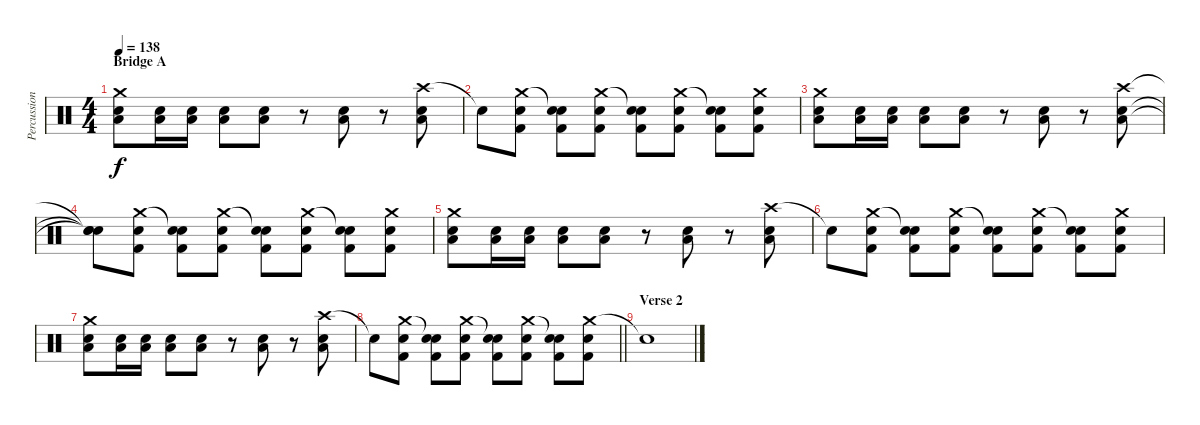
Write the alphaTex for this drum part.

\track ("Percussion" "Percussion") {instrument percussion}
\staff {score}
\articulation defaults
\ts (4 4)
\section ("" "Bridge A")
\tempo 138
\clef neutral
\ks c
("Crash medium (hit)" "Electric Snare (hit)" "Low Tom (hit)").8{dy f} ("Low Tom (hit)" "Electric Snare (hit)").16 ("Low Tom (hit)" "Electric Snare (hit)").16 ("Low Tom (hit)" "Electric Snare (hit)").8 ("Low Tom (hit)" "Electric Snare (hit)").8 r.8 ("Low Tom (hit)" "Electric Snare (hit)").8 r.8 ("Crash high (hit)" "Low Tom (hit)" "Electric Snare (hit)").8 |
"Snare (hit)"{t}.8 ("Crash medium (hit)" "Electric Snare (hit)" "Kick (hit) 2").8 ("Snare (hit)"{t} "Electric Snare (hit)" "Kick (hit) 2").8 ("Crash medium (hit)" "Electric Snare (hit)" "Kick (hit) 2").8 ("Snare (hit)"{t} "Electric Snare (hit)" "Kick (hit) 2").8 ("Crash medium (hit)" "Electric Snare (hit)" "Kick (hit) 2").8 ("Snare (hit)"{t} "Electric Snare (hit)" "Kick (hit) 2").8 ("Crash medium (hit)" "Electric Snare (hit)" "Kick (hit) 2").8 |
("Crash medium (hit)" "Electric Snare (hit)" "Low Tom (hit)").8 ("Low Tom (hit)" "Electric Snare (hit)").16 ("Low Tom (hit)" "Electric Snare (hit)").16 ("Low Tom (hit)" "Electric Snare (hit)").8 ("Low Tom (hit)" "Electric Snare (hit)").8 r.8 ("Low Tom (hit)" "Electric Snare (hit)").8 r.8 ("Crash high (hit)" "Low Tom (hit)" "Electric Snare (hit)").8 |
("Snare (hit)"{t} "Snare (hit)"{t} "Snare (hit)"{t}).8 ("Crash medium (hit)" "Electric Snare (hit)" "Kick (hit) 2").8 ("Snare (hit)"{t} "Electric Snare (hit)" "Kick (hit) 2").8 ("Crash medium (hit)" "Electric Snare (hit)" "Kick (hit) 2").8 ("Snare (hit)"{t} "Electric Snare (hit)" "Kick (hit) 2").8 ("Crash medium (hit)" "Electric Snare (hit)" "Kick (hit) 2").8 ("Snare (hit)"{t} "Electric Snare (hit)" "Kick (hit) 2").8 ("Crash medium (hit)" "Electric Snare (hit)" "Kick (hit) 2").8 |
("Crash medium (hit)" "Electric Snare (hit)" "Low Tom (hit)").8 ("Low Tom (hit)" "Electric Snare (hit)").16 ("Low Tom (hit)" "Electric Snare (hit)").16 ("Low Tom (hit)" "Electric Snare (hit)").8 ("Low Tom (hit)" "Electric Snare (hit)").8 r.8 ("Low Tom (hit)" "Electric Snare (hit)").8 r.8 ("Crash high (hit)" "Low Tom (hit)" "Electric Snare (hit)").8 |
"Snare (hit)"{t}.8 ("Crash medium (hit)" "Electric Snare (hit)" "Kick (hit) 2").8 ("Snare (hit)"{t} "Electric Snare (hit)" "Kick (hit) 2").8 ("Crash medium (hit)" "Electric Snare (hit)" "Kick (hit) 2").8 ("Snare (hit)"{t} "Electric Snare (hit)" "Kick (hit) 2").8 ("Crash medium (hit)" "Electric Snare (hit)" "Kick (hit) 2").8 ("Snare (hit)"{t} "Electric Snare (hit)" "Kick (hit) 2").8 ("Crash medium (hit)" "Electric Snare (hit)" "Kick (hit) 2").8 |
("Crash medium (hit)" "Electric Snare (hit)" "Low Tom (hit)").8 ("Low Tom (hit)" "Electric Snare (hit)").16 ("Low Tom (hit)" "Electric Snare (hit)").16 ("Low Tom (hit)" "Electric Snare (hit)").8 ("Low Tom (hit)" "Electric Snare (hit)").8 r.8 ("Low Tom (hit)" "Electric Snare (hit)").8 r.8 ("Crash high (hit)" "Low Tom (hit)" "Electric Snare (hit)").8 |
\barLineRight lightlight "Snare (hit)"{t}.8
("Crash medium (hit)" "Electric Snare (hit)" "Kick (hit) 2").8 ("Snare (hit)"{t} "Electric Snare (hit)" "Kick (hit) 2").8 ("Crash medium (hit)" "Electric Snare (hit)" "Kick (hit) 2").8 ("Snare (hit)"{t} "Electric Snare (hit)" "Kick (hit) 2").8 ("Crash medium (hit)" "Electric Snare (hit)" "Kick (hit) 2").8 ("Snare (hit)"{t} "Electric Snare (hit)" "Kick (hit) 2").8 ("Crash medium (hit)" "Electric Snare (hit)" "Kick (hit) 2").8 |
\section ("" "Verse 2")
"Snare (hit)"{t}.1
